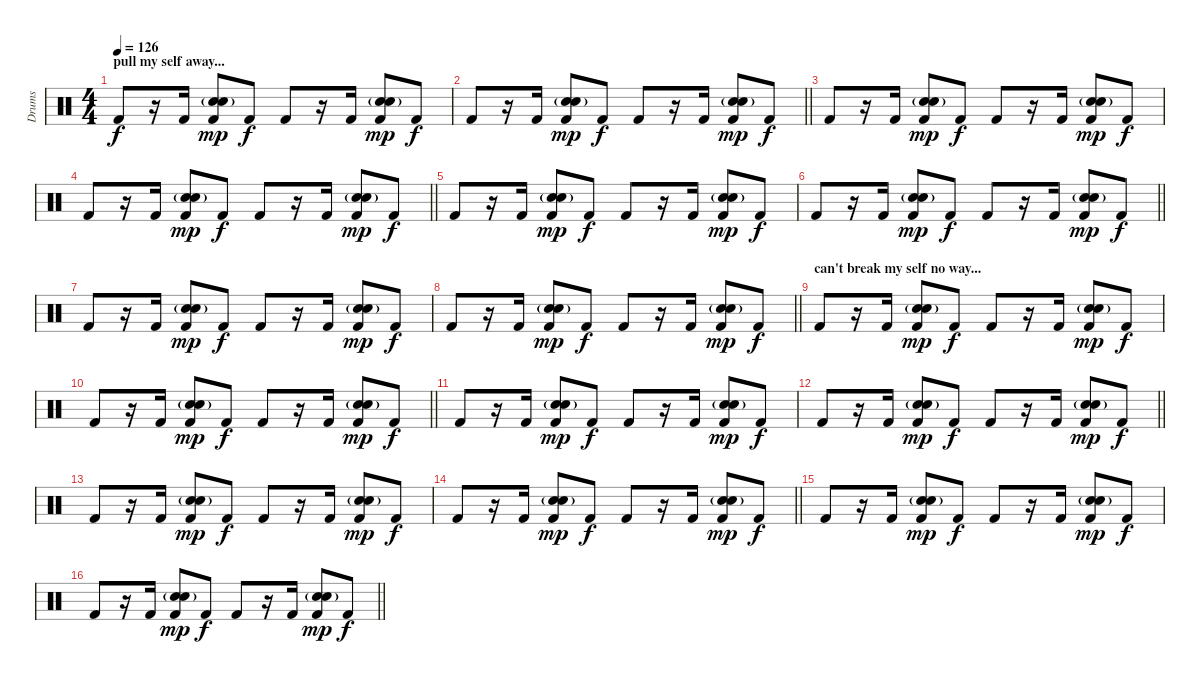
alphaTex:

\track ("Drums" "Drums") {instrument percussion}
\staff {score}
\articulation defaults
\ts (4 4)
\section ("" "pull my self away... ")
\tempo 126
\clef neutral
\ks c "Kick (hit) 2".8{dy f}
r.16 "Kick (hit) 2".16 ("Hand Clap (hit)" "Electric Snare (hit)"{g} "Kick (hit) 2").8{dy mp} "Kick (hit) 2".8{dy f} "Kick (hit) 2".8 r.16 "Kick (hit) 2".16 ("Hand Clap (hit)" "Electric Snare (hit)"{g} "Kick (hit) 2").8{dy mp} "Kick (hit) 2".8{dy f} |
\barLineRight lightlight "Kick (hit) 2".8
r.16 "Kick (hit) 2".16 ("Hand Clap (hit)" "Electric Snare (hit)"{g} "Kick (hit) 2").8{dy mp} "Kick (hit) 2".8{dy f} "Kick (hit) 2".8 r.16 "Kick (hit) 2".16 ("Hand Clap (hit)" "Electric Snare (hit)"{g} "Kick (hit) 2").8{dy mp} "Kick (hit) 2".8{dy f} |
"Kick (hit) 2".8 r.16 "Kick (hit) 2".16 ("Hand Clap (hit)" "Electric Snare (hit)"{g} "Kick (hit) 2").8{dy mp} "Kick (hit) 2".8{dy f} "Kick (hit) 2".8 r.16 "Kick (hit) 2".16 ("Hand Clap (hit)" "Electric Snare (hit)"{g} "Kick (hit) 2").8{dy mp} "Kick (hit) 2".8{dy f} |
\barLineRight lightlight "Kick (hit) 2".8
r.16 "Kick (hit) 2".16 ("Hand Clap (hit)" "Electric Snare (hit)"{g} "Kick (hit) 2").8{dy mp} "Kick (hit) 2".8{dy f} "Kick (hit) 2".8 r.16 "Kick (hit) 2".16 ("Hand Clap (hit)" "Electric Snare (hit)"{g} "Kick (hit) 2").8{dy mp} "Kick (hit) 2".8{dy f} |
"Kick (hit) 2".8 r.16 "Kick (hit) 2".16 ("Hand Clap (hit)" "Electric Snare (hit)"{g} "Kick (hit) 2").8{dy mp} "Kick (hit) 2".8{dy f} "Kick (hit) 2".8 r.16 "Kick (hit) 2".16 ("Hand Clap (hit)" "Electric Snare (hit)"{g} "Kick (hit) 2").8{dy mp} "Kick (hit) 2".8{dy f} |
\barLineRight lightlight "Kick (hit) 2".8
r.16 "Kick (hit) 2".16 ("Hand Clap (hit)" "Electric Snare (hit)"{g} "Kick (hit) 2").8{dy mp} "Kick (hit) 2".8{dy f} "Kick (hit) 2".8 r.16 "Kick (hit) 2".16 ("Hand Clap (hit)" "Electric Snare (hit)"{g} "Kick (hit) 2").8{dy mp} "Kick (hit) 2".8{dy f} |
"Kick (hit) 2".8 r.16 "Kick (hit) 2".16 ("Hand Clap (hit)" "Electric Snare (hit)"{g} "Kick (hit) 2").8{dy mp} "Kick (hit) 2".8{dy f} "Kick (hit) 2".8 r.16 "Kick (hit) 2".16 ("Hand Clap (hit)" "Electric Snare (hit)"{g} "Kick (hit) 2").8{dy mp} "Kick (hit) 2".8{dy f} |
\barLineRight lightlight "Kick (hit) 2".8
r.16 "Kick (hit) 2".16 ("Hand Clap (hit)" "Electric Snare (hit)"{g} "Kick (hit) 2").8{dy mp} "Kick (hit) 2".8{dy f} "Kick (hit) 2".8 r.16 "Kick (hit) 2".16 ("Hand Clap (hit)" "Electric Snare (hit)"{g} "Kick (hit) 2").8{dy mp} "Kick (hit) 2".8{dy f} |
\section ("" "can't break my self no way...")
"Kick (hit) 2".8 r.16 "Kick (hit) 2".16 ("Hand Clap (hit)" "Electric Snare (hit)"{g} "Kick (hit) 2").8{dy mp} "Kick (hit) 2".8{dy f} "Kick (hit) 2".8 r.16 "Kick (hit) 2".16 ("Hand Clap (hit)" "Electric Snare (hit)"{g} "Kick (hit) 2").8{dy mp} "Kick (hit) 2".8{dy f} |
\barLineRight lightlight "Kick (hit) 2".8
r.16 "Kick (hit) 2".16 ("Hand Clap (hit)" "Electric Snare (hit)"{g} "Kick (hit) 2").8{dy mp} "Kick (hit) 2".8{dy f} "Kick (hit) 2".8 r.16 "Kick (hit) 2".16 ("Hand Clap (hit)" "Electric Snare (hit)"{g} "Kick (hit) 2").8{dy mp} "Kick (hit) 2".8{dy f} |
"Kick (hit) 2".8 r.16 "Kick (hit) 2".16 ("Hand Clap (hit)" "Electric Snare (hit)"{g} "Kick (hit) 2").8{dy mp} "Kick (hit) 2".8{dy f} "Kick (hit) 2".8 r.16 "Kick (hit) 2".16 ("Hand Clap (hit)" "Electric Snare (hit)"{g} "Kick (hit) 2").8{dy mp} "Kick (hit) 2".8{dy f} |
\barLineRight lightlight "Kick (hit) 2".8
r.16 "Kick (hit) 2".16 ("Hand Clap (hit)" "Electric Snare (hit)"{g} "Kick (hit) 2").8{dy mp} "Kick (hit) 2".8{dy f} "Kick (hit) 2".8 r.16 "Kick (hit) 2".16 ("Hand Clap (hit)" "Electric Snare (hit)"{g} "Kick (hit) 2").8{dy mp} "Kick (hit) 2".8{dy f} |
"Kick (hit) 2".8 r.16 "Kick (hit) 2".16 ("Hand Clap (hit)" "Electric Snare (hit)"{g} "Kick (hit) 2").8{dy mp} "Kick (hit) 2".8{dy f} "Kick (hit) 2".8 r.16 "Kick (hit) 2".16 ("Hand Clap (hit)" "Electric Snare (hit)"{g} "Kick (hit) 2").8{dy mp} "Kick (hit) 2".8{dy f} |
\barLineRight lightlight "Kick (hit) 2".8
r.16 "Kick (hit) 2".16 ("Hand Clap (hit)" "Electric Snare (hit)"{g} "Kick (hit) 2").8{dy mp} "Kick (hit) 2".8{dy f} "Kick (hit) 2".8 r.16 "Kick (hit) 2".16 ("Hand Clap (hit)" "Electric Snare (hit)"{g} "Kick (hit) 2").8{dy mp} "Kick (hit) 2".8{dy f} |
"Kick (hit) 2".8 r.16 "Kick (hit) 2".16 ("Hand Clap (hit)" "Electric Snare (hit)"{g} "Kick (hit) 2").8{dy mp} "Kick (hit) 2".8{dy f} "Kick (hit) 2".8 r.16 "Kick (hit) 2".16 ("Hand Clap (hit)" "Electric Snare (hit)"{g} "Kick (hit) 2").8{dy mp} "Kick (hit) 2".8{dy f} |
\barLineRight lightlight "Kick (hit) 2".8
r.16 "Kick (hit) 2".16 ("Hand Clap (hit)" "Electric Snare (hit)"{g} "Kick (hit) 2").8{dy mp} "Kick (hit) 2".8{dy f} "Kick (hit) 2".8 r.16 "Kick (hit) 2".16 ("Hand Clap (hit)" "Electric Snare (hit)"{g} "Kick (hit) 2").8{dy mp} "Kick (hit) 2".8{dy f}
